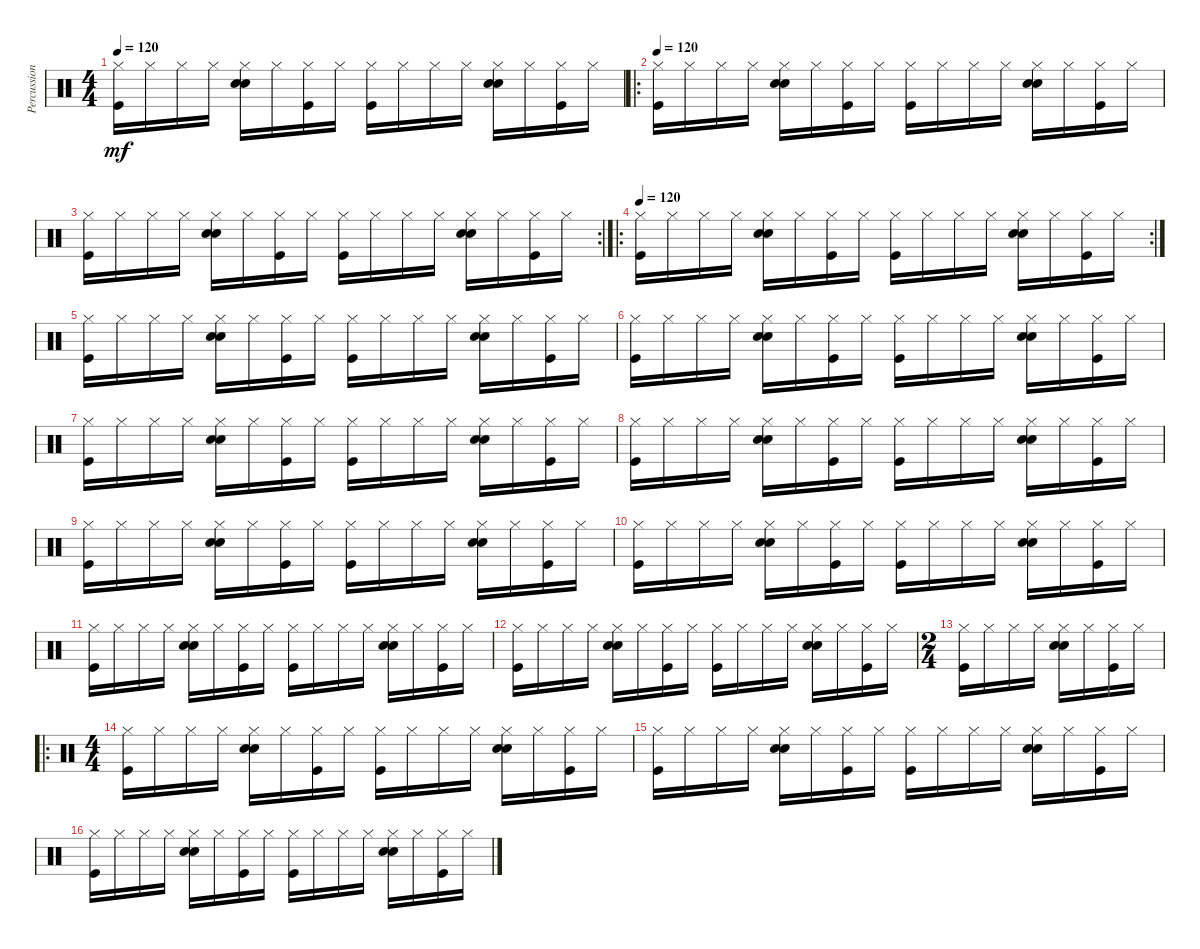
\track ("Percussion" "Percussion") {instrument percussion}
\staff {score}
\articulation defaults
\ts (4 4)
\tempo 120
\clef neutral
\ks c
("Hi-Hat (closed)" "Kick (hit)").16{dy mf} "Hi-Hat (closed)".16 "Hi-Hat (closed)".16 "Hi-Hat (closed)".16 ("Hi-Hat (closed)" "Hand Clap (hit)" "Snare (hit) 2").16 "Hi-Hat (closed)".16 ("Hi-Hat (closed)" "Kick (hit)").16 "Hi-Hat (closed)".16 ("Hi-Hat (closed)" "Kick (hit)").16 "Hi-Hat (closed)".16 "Hi-Hat (closed)".16 "Hi-Hat (closed)".16 ("Hi-Hat (closed)" "Hand Clap (hit)" "Snare (hit) 2").16 "Hi-Hat (closed)".16 ("Hi-Hat (closed)" "Kick (hit)").16 "Hi-Hat (closed)".16 |
\ro
\tempo 120
("Hi-Hat (closed)" "Kick (hit)").16 "Hi-Hat (closed)".16 "Hi-Hat (closed)".16 "Hi-Hat (closed)".16 ("Hi-Hat (closed)" "Hand Clap (hit)" "Snare (hit) 2").16 "Hi-Hat (closed)".16 ("Hi-Hat (closed)" "Kick (hit)").16 "Hi-Hat (closed)".16 ("Hi-Hat (closed)" "Kick (hit)").16 "Hi-Hat (closed)".16 "Hi-Hat (closed)".16 "Hi-Hat (closed)".16 ("Hi-Hat (closed)" "Hand Clap (hit)" "Snare (hit) 2").16 "Hi-Hat (closed)".16 ("Hi-Hat (closed)" "Kick (hit)").16 "Hi-Hat (closed)".16 |
\rc 2
("Hi-Hat (closed)" "Kick (hit)").16 "Hi-Hat (closed)".16 "Hi-Hat (closed)".16 "Hi-Hat (closed)".16 ("Hi-Hat (closed)" "Hand Clap (hit)" "Snare (hit) 2").16 "Hi-Hat (closed)".16 ("Hi-Hat (closed)" "Kick (hit)").16 "Hi-Hat (closed)".16 ("Hi-Hat (closed)" "Kick (hit)").16 "Hi-Hat (closed)".16 "Hi-Hat (closed)".16 "Hi-Hat (closed)".16 ("Hi-Hat (closed)" "Hand Clap (hit)" "Snare (hit) 2").16 "Hi-Hat (closed)".16 ("Hi-Hat (closed)" "Kick (hit)").16 "Hi-Hat (closed)".16 |
\ro
\rc 2
\tempo 120
("Hi-Hat (closed)" "Kick (hit)").16 "Hi-Hat (closed)".16 "Hi-Hat (closed)".16 "Hi-Hat (closed)".16 ("Hi-Hat (closed)" "Hand Clap (hit)" "Snare (hit) 2").16 "Hi-Hat (closed)".16 ("Hi-Hat (closed)" "Kick (hit)").16 "Hi-Hat (closed)".16 ("Hi-Hat (closed)" "Kick (hit)").16 "Hi-Hat (closed)".16 "Hi-Hat (closed)".16 "Hi-Hat (closed)".16 ("Hi-Hat (closed)" "Hand Clap (hit)" "Snare (hit) 2").16 "Hi-Hat (closed)".16 ("Hi-Hat (closed)" "Kick (hit)").16 "Hi-Hat (closed)".16 |
("Hi-Hat (closed)" "Kick (hit)").16 "Hi-Hat (closed)".16 "Hi-Hat (closed)".16 "Hi-Hat (closed)".16 ("Hi-Hat (closed)" "Hand Clap (hit)" "Snare (hit) 2").16 "Hi-Hat (closed)".16 ("Hi-Hat (closed)" "Kick (hit)").16 "Hi-Hat (closed)".16 ("Hi-Hat (closed)" "Kick (hit)").16 "Hi-Hat (closed)".16 "Hi-Hat (closed)".16 "Hi-Hat (closed)".16 ("Hi-Hat (closed)" "Hand Clap (hit)" "Snare (hit) 2").16 "Hi-Hat (closed)".16 ("Hi-Hat (closed)" "Kick (hit)").16 "Hi-Hat (closed)".16 |
("Hi-Hat (closed)" "Kick (hit)").16 "Hi-Hat (closed)".16 "Hi-Hat (closed)".16 "Hi-Hat (closed)".16 ("Hi-Hat (closed)" "Hand Clap (hit)" "Snare (hit) 2").16 "Hi-Hat (closed)".16 ("Hi-Hat (closed)" "Kick (hit)").16 "Hi-Hat (closed)".16 ("Hi-Hat (closed)" "Kick (hit)").16 "Hi-Hat (closed)".16 "Hi-Hat (closed)".16 "Hi-Hat (closed)".16 ("Hi-Hat (closed)" "Hand Clap (hit)" "Snare (hit) 2").16 "Hi-Hat (closed)".16 ("Hi-Hat (closed)" "Kick (hit)").16 "Hi-Hat (closed)".16 |
("Hi-Hat (closed)" "Kick (hit)").16 "Hi-Hat (closed)".16 "Hi-Hat (closed)".16 "Hi-Hat (closed)".16 ("Hi-Hat (closed)" "Hand Clap (hit)" "Snare (hit) 2").16 "Hi-Hat (closed)".16 ("Hi-Hat (closed)" "Kick (hit)").16 "Hi-Hat (closed)".16 ("Hi-Hat (closed)" "Kick (hit)").16 "Hi-Hat (closed)".16 "Hi-Hat (closed)".16 "Hi-Hat (closed)".16 ("Hi-Hat (closed)" "Hand Clap (hit)" "Snare (hit) 2").16 "Hi-Hat (closed)".16 ("Hi-Hat (closed)" "Kick (hit)").16 "Hi-Hat (closed)".16 |
("Hi-Hat (closed)" "Kick (hit)").16 "Hi-Hat (closed)".16 "Hi-Hat (closed)".16 "Hi-Hat (closed)".16 ("Hi-Hat (closed)" "Hand Clap (hit)" "Snare (hit) 2").16 "Hi-Hat (closed)".16 ("Hi-Hat (closed)" "Kick (hit)").16 "Hi-Hat (closed)".16 ("Hi-Hat (closed)" "Kick (hit)").16 "Hi-Hat (closed)".16 "Hi-Hat (closed)".16 "Hi-Hat (closed)".16 ("Hi-Hat (closed)" "Hand Clap (hit)" "Snare (hit) 2").16 "Hi-Hat (closed)".16 ("Hi-Hat (closed)" "Kick (hit)").16 "Hi-Hat (closed)".16 |
("Hi-Hat (closed)" "Kick (hit)").16 "Hi-Hat (closed)".16 "Hi-Hat (closed)".16 "Hi-Hat (closed)".16 ("Hi-Hat (closed)" "Hand Clap (hit)" "Snare (hit) 2").16 "Hi-Hat (closed)".16 ("Hi-Hat (closed)" "Kick (hit)").16 "Hi-Hat (closed)".16 ("Hi-Hat (closed)" "Kick (hit)").16 "Hi-Hat (closed)".16 "Hi-Hat (closed)".16 "Hi-Hat (closed)".16 ("Hi-Hat (closed)" "Hand Clap (hit)" "Snare (hit) 2").16 "Hi-Hat (closed)".16 ("Hi-Hat (closed)" "Kick (hit)").16 "Hi-Hat (closed)".16 |
("Hi-Hat (closed)" "Kick (hit)").16 "Hi-Hat (closed)".16 "Hi-Hat (closed)".16 "Hi-Hat (closed)".16 ("Hi-Hat (closed)" "Hand Clap (hit)" "Snare (hit) 2").16 "Hi-Hat (closed)".16 ("Hi-Hat (closed)" "Kick (hit)").16 "Hi-Hat (closed)".16 ("Hi-Hat (closed)" "Kick (hit)").16 "Hi-Hat (closed)".16 "Hi-Hat (closed)".16 "Hi-Hat (closed)".16 ("Hi-Hat (closed)" "Hand Clap (hit)" "Snare (hit) 2").16 "Hi-Hat (closed)".16 ("Hi-Hat (closed)" "Kick (hit)").16 "Hi-Hat (closed)".16 |
("Hi-Hat (closed)" "Kick (hit)").16 "Hi-Hat (closed)".16 "Hi-Hat (closed)".16 "Hi-Hat (closed)".16 ("Hi-Hat (closed)" "Hand Clap (hit)" "Snare (hit) 2").16 "Hi-Hat (closed)".16 ("Hi-Hat (closed)" "Kick (hit)").16 "Hi-Hat (closed)".16 ("Hi-Hat (closed)" "Kick (hit)").16 "Hi-Hat (closed)".16 "Hi-Hat (closed)".16 "Hi-Hat (closed)".16 ("Hi-Hat (closed)" "Hand Clap (hit)" "Snare (hit) 2").16 "Hi-Hat (closed)".16 ("Hi-Hat (closed)" "Kick (hit)").16 "Hi-Hat (closed)".16 |
("Hi-Hat (closed)" "Kick (hit)").16 "Hi-Hat (closed)".16 "Hi-Hat (closed)".16 "Hi-Hat (closed)".16 ("Hi-Hat (closed)" "Hand Clap (hit)" "Snare (hit) 2").16 "Hi-Hat (closed)".16 ("Hi-Hat (closed)" "Kick (hit)").16 "Hi-Hat (closed)".16 ("Hi-Hat (closed)" "Kick (hit)").16 "Hi-Hat (closed)".16 "Hi-Hat (closed)".16 "Hi-Hat (closed)".16 ("Hi-Hat (closed)" "Hand Clap (hit)" "Snare (hit) 2").16 "Hi-Hat (closed)".16 ("Hi-Hat (closed)" "Kick (hit)").16 "Hi-Hat (closed)".16 |
\ts (2 4)
("Hi-Hat (closed)" "Kick (hit)").16 "Hi-Hat (closed)".16 "Hi-Hat (closed)".16 "Hi-Hat (closed)".16 ("Hi-Hat (closed)" "Hand Clap (hit)" "Snare (hit) 2").16 "Hi-Hat (closed)".16 ("Hi-Hat (closed)" "Kick (hit)").16 "Hi-Hat (closed)".16 |
\ro
\ts (4 4)
("Hi-Hat (closed)" "Kick (hit)").16 "Hi-Hat (closed)".16 "Hi-Hat (closed)".16 "Hi-Hat (closed)".16 ("Hi-Hat (closed)" "Hand Clap (hit)" "Snare (hit) 2").16 "Hi-Hat (closed)".16 ("Hi-Hat (closed)" "Kick (hit)").16 "Hi-Hat (closed)".16 ("Hi-Hat (closed)" "Kick (hit)").16 "Hi-Hat (closed)".16 "Hi-Hat (closed)".16 "Hi-Hat (closed)".16 ("Hi-Hat (closed)" "Hand Clap (hit)" "Snare (hit) 2").16 "Hi-Hat (closed)".16 ("Hi-Hat (closed)" "Kick (hit)").16 "Hi-Hat (closed)".16 |
("Hi-Hat (closed)" "Kick (hit)").16 "Hi-Hat (closed)".16 "Hi-Hat (closed)".16 "Hi-Hat (closed)".16 ("Hi-Hat (closed)" "Hand Clap (hit)" "Snare (hit) 2").16 "Hi-Hat (closed)".16 ("Hi-Hat (closed)" "Kick (hit)").16 "Hi-Hat (closed)".16 ("Hi-Hat (closed)" "Kick (hit)").16 "Hi-Hat (closed)".16 "Hi-Hat (closed)".16 "Hi-Hat (closed)".16 ("Hi-Hat (closed)" "Hand Clap (hit)" "Snare (hit) 2").16 "Hi-Hat (closed)".16 ("Hi-Hat (closed)" "Kick (hit)").16 "Hi-Hat (closed)".16 |
("Hi-Hat (closed)" "Kick (hit)").16 "Hi-Hat (closed)".16 "Hi-Hat (closed)".16 "Hi-Hat (closed)".16 ("Hi-Hat (closed)" "Hand Clap (hit)" "Snare (hit) 2").16 "Hi-Hat (closed)".16 ("Hi-Hat (closed)" "Kick (hit)").16 "Hi-Hat (closed)".16 ("Hi-Hat (closed)" "Kick (hit)").16 "Hi-Hat (closed)".16 "Hi-Hat (closed)".16 "Hi-Hat (closed)".16 ("Hi-Hat (closed)" "Hand Clap (hit)" "Snare (hit) 2").16 "Hi-Hat (closed)".16 ("Hi-Hat (closed)" "Kick (hit)").16 "Hi-Hat (closed)".16
